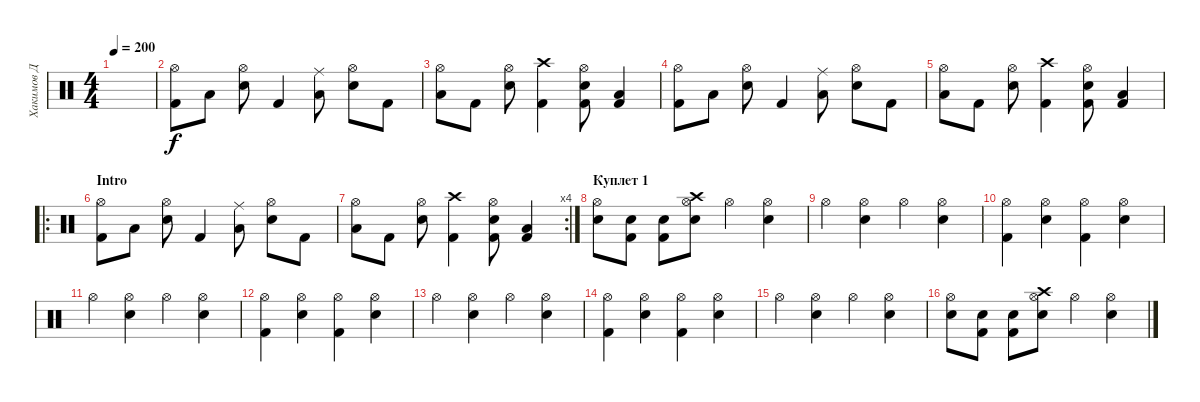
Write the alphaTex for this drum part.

\track ("Хакимов Д" "Хакимов Д") {instrument percussion}
\staff {score}
\articulation defaults
\ts (4 4)
\tempo 200
\clef neutral
\ks c
|
("Hi-Hat (open)" "Kick (hit) 2").8 "Low Tom (hit)".8 ("Hi-Hat (open)" "Snare (hit) 2").8 "Kick (hit) 2".4 ("Ride (middle)" "Low Tom (hit)").8 ("Hi-Hat (open)" "Snare (hit) 2").8 "Kick (hit) 2".8 |
("Hi-Hat (open)" "Low Tom (hit)").8 "Kick (hit) 2".8 ("Hi-Hat (open)" "Snare (hit) 2").8 ("Crash high (hit)" "Kick (hit) 2").4 ("Snare (hit) 2" "Kick (hit) 2" "Hi-Hat (open)").8 ("Low Tom (hit)" "Kick (hit) 2").4 |
("Hi-Hat (open)" "Kick (hit) 2").8 "Low Tom (hit)".8 ("Hi-Hat (open)" "Snare (hit) 2").8 "Kick (hit) 2".4 ("Ride (middle)" "Low Tom (hit)").8 ("Hi-Hat (open)" "Snare (hit) 2").8 "Kick (hit) 2".8 |
("Hi-Hat (open)" "Low Tom (hit)").8 "Kick (hit) 2".8 ("Hi-Hat (open)" "Snare (hit) 2").8 ("Crash high (hit)" "Kick (hit) 2").4 ("Snare (hit) 2" "Kick (hit) 2" "Hi-Hat (open)").8 ("Low Tom (hit)" "Kick (hit) 2").4 |
\ro
\section ("" "Intro")
("Hi-Hat (open)" "Kick (hit) 2").8 "Low Tom (hit)".8 ("Hi-Hat (open)" "Snare (hit) 2").8 "Kick (hit) 2".4 ("Ride (middle)" "Low Tom (hit)").8 ("Hi-Hat (open)" "Snare (hit) 2").8 "Kick (hit) 2".8 |
\rc 4
("Hi-Hat (open)" "Low Tom (hit)").8 "Kick (hit) 2".8 ("Hi-Hat (open)" "Snare (hit) 2").8 ("Crash high (hit)" "Kick (hit) 2").4 ("Snare (hit) 2" "Kick (hit) 2" "Hi-Hat (open)").8 ("Low Tom (hit)" "Kick (hit) 2").4 |
\section ("" "Куплет 1")
("Hi-Hat (open)" "Snare (hit) 2").8 ("Kick (hit) 2" "Snare (hit) 2").8 ("Kick (hit) 2" "Snare (hit) 2").8 ("Crash high (hit)" "Hi-Hat (open)" "Snare (hit) 2").8 "Hi-Hat (open)".4 ("Hi-Hat (open)" "Snare (hit) 2").4 |
"Hi-Hat (open)".4 ("Hi-Hat (open)" "Snare (hit) 2").4 "Hi-Hat (open)".4 ("Hi-Hat (open)" "Snare (hit) 2").4 |
("Hi-Hat (open)" "Kick (hit) 2").4 ("Hi-Hat (open)" "Snare (hit) 2").4 ("Hi-Hat (open)" "Kick (hit) 2").4 ("Hi-Hat (open)" "Snare (hit) 2").4 |
"Hi-Hat (open)".4 ("Hi-Hat (open)" "Snare (hit) 2").4 "Hi-Hat (open)".4 ("Hi-Hat (open)" "Snare (hit) 2").4 |
("Hi-Hat (open)" "Kick (hit) 2").4 ("Hi-Hat (open)" "Snare (hit) 2").4 ("Hi-Hat (open)" "Kick (hit) 2").4 ("Hi-Hat (open)" "Snare (hit) 2").4 |
"Hi-Hat (open)".4 ("Hi-Hat (open)" "Snare (hit) 2").4 "Hi-Hat (open)".4 ("Hi-Hat (open)" "Snare (hit) 2").4 |
("Hi-Hat (open)" "Kick (hit) 2").4 ("Hi-Hat (open)" "Snare (hit) 2").4 ("Hi-Hat (open)" "Kick (hit) 2").4 ("Hi-Hat (open)" "Snare (hit) 2").4 |
"Hi-Hat (open)".4 ("Hi-Hat (open)" "Snare (hit) 2").4 "Hi-Hat (open)".4 ("Hi-Hat (open)" "Snare (hit) 2").4 |
("Hi-Hat (open)" "Snare (hit) 2").8 ("Kick (hit) 2" "Snare (hit) 2").8 ("Kick (hit) 2" "Snare (hit) 2").8 ("Crash high (hit)" "Hi-Hat (open)" "Snare (hit) 2").8 "Hi-Hat (open)".4 ("Hi-Hat (open)" "Snare (hit) 2").4
